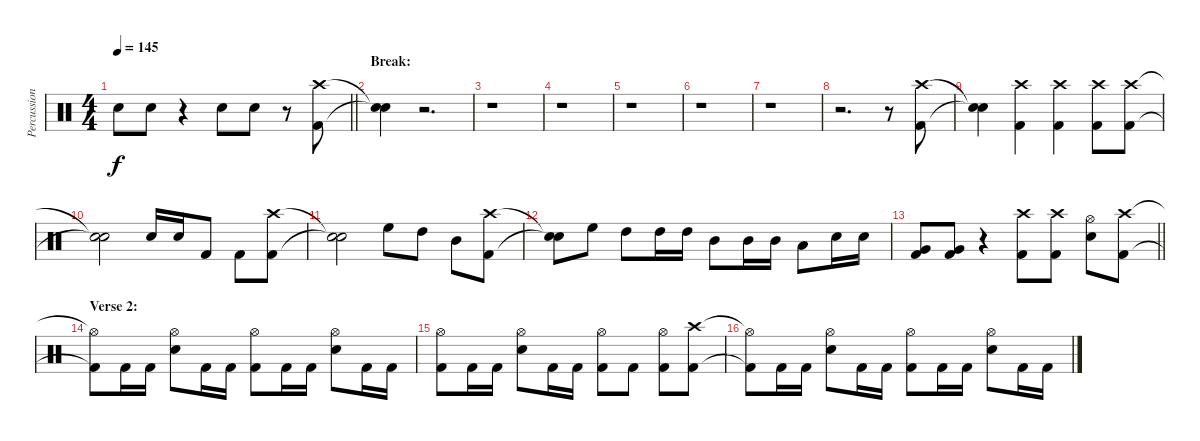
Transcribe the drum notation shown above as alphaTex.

\track ("Percussion" "Percussion") {instrument percussion}
\staff {score}
\articulation defaults
\ts (4 4)
\tempo 145
\clef neutral
\barLineRight lightlight
\ks c "Electric Snare (hit)".8{dy f} "Electric Snare (hit)".8
r.4 "Electric Snare (hit)".8 "Electric Snare (hit)".8 r.8 ("Crash high (hit)" "Kick (hit) 2").8 |
\section ("" "Break:")
("Snare (hit)"{t} "Snare (hit)"{t}).4 r.2{d} |
r.1 |
r.1 |
r.1 |
r.1 |
r.1 |
r.2{d} r.8 ("Crash high (hit)" "Kick (hit) 2").8 |
("Snare (hit)"{t} "Snare (hit)"{t}).4 ("Crash high (hit)" "Kick (hit) 2").4 ("Crash high (hit)" "Kick (hit) 2").4 ("Crash high (hit)" "Kick (hit) 2").8 ("Crash high (hit)" "Kick (hit) 2").8 |
("Snare (hit)"{t} "Snare (hit)"{t}).2 "Electric Snare (hit)".16 "Electric Snare (hit)".16 "Kick (hit) 2".8 "Kick (hit) 2".8 ("Crash high (hit)" "Kick (hit) 2").8 |
("Snare (hit)"{t} "Snare (hit)"{t}).2 "High Floor Tom (hit)".8 "High Tom (hit)".8 "Mid Tom (hit)".8 ("Crash high (hit)" "Kick (hit) 2").8 |
("Snare (hit)"{t} "Snare (hit)"{t}).8 "High Floor Tom (hit)".8 "High Tom (hit)".8 "High Tom (hit)".16 "High Tom (hit)".16 "Mid Tom (hit)".8 "Mid Tom (hit)".16 "Mid Tom (hit)".16 "Low Tom (hit)".8 "Electric Snare (hit)".16 "Electric Snare (hit)".16 |
\barLineRight lightlight
("Very Low Tom (hit)" "Kick (hit) 2").8 ("Very Low Tom (hit)" "Kick (hit) 2").8 r.4 ("Crash high (hit)" "Kick (hit) 2").8 ("Crash high (hit)" "Kick (hit) 2").8 ("Hi-Hat (open)" "Electric Snare (hit)").8 ("Crash high (hit)" "Kick (hit) 2").8 |
\section ("" "Verse 2:")
("Hi-Hat (open)"{t} "Kick (hit) 2"{t}).8 "Kick (hit) 2".16 "Kick (hit) 2".16 ("Hi-Hat (open)" "Electric Snare (hit)").8 "Kick (hit) 2".16 "Kick (hit) 2".16 ("Hi-Hat (open)" "Kick (hit) 2").8 "Kick (hit) 2".16 "Kick (hit) 2".16 ("Hi-Hat (open)" "Electric Snare (hit)").8 "Kick (hit) 2".16 "Kick (hit) 2".16 |
("Hi-Hat (open)" "Kick (hit) 2").8 "Kick (hit) 2".16 "Kick (hit) 2".16 ("Hi-Hat (open)" "Electric Snare (hit)").8 "Kick (hit) 2".16 "Kick (hit) 2".16 ("Hi-Hat (open)" "Kick (hit) 2").8 "Kick (hit) 2".8 ("Hi-Hat (open)" "Kick (hit) 2").8 ("Crash high (hit)" "Kick (hit) 2").8 |
("Hi-Hat (open)"{t} "Kick (hit) 2"{t}).8 "Kick (hit) 2".16 "Kick (hit) 2".16 ("Hi-Hat (open)" "Electric Snare (hit)").8 "Kick (hit) 2".16 "Kick (hit) 2".16 ("Hi-Hat (open)" "Kick (hit) 2").8 "Kick (hit) 2".16 "Kick (hit) 2".16 ("Hi-Hat (open)" "Electric Snare (hit)").8 "Kick (hit) 2".16 "Kick (hit) 2".16
